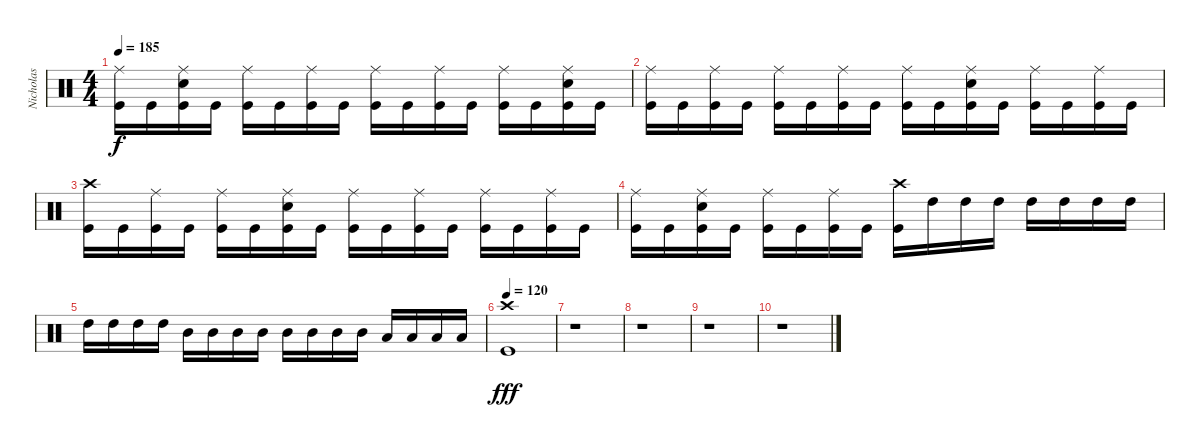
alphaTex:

\track ("Nicholas" "Nicholas") {instrument percussion}
\staff {score}
\articulation defaults
\ts (4 4)
\tempo 185
\clef neutral
\ks c
("Ride (middle)" "Kick (hit)").16{dy f} "Kick (hit)".16 ("Ride (middle)" "Electric Snare (hit)" "Kick (hit)").16 "Kick (hit)".16 ("Ride (middle)" "Kick (hit)").16 "Kick (hit)".16 ("Ride (middle)" "Kick (hit)").16 "Kick (hit)".16 ("Ride (middle)" "Kick (hit)").16 "Kick (hit)".16 ("Ride (middle)" "Kick (hit)").16 "Kick (hit)".16 ("Ride (middle)" "Kick (hit)").16 "Kick (hit)".16 ("Ride (middle)" "Electric Snare (hit)" "Kick (hit)").16 "Kick (hit)".16 |
("Ride (middle)" "Kick (hit)").16 "Kick (hit)".16 ("Ride (middle)" "Kick (hit)").16 "Kick (hit)".16 ("Ride (middle)" "Kick (hit)").16 "Kick (hit)".16 ("Ride (middle)" "Kick (hit)").16 "Kick (hit)".16 ("Ride (middle)" "Kick (hit)").16 "Kick (hit)".16 ("Ride (middle)" "Electric Snare (hit)" "Kick (hit)").16 "Kick (hit)".16 ("Ride (middle)" "Kick (hit)").16 "Kick (hit)".16 ("Ride (middle)" "Kick (hit)").16 "Kick (hit)".16 |
("Crash high (hit)" "Kick (hit)").16 "Kick (hit)".16 ("Ride (middle)" "Kick (hit)").16 "Kick (hit)".16 ("Ride (middle)" "Kick (hit)").16 "Kick (hit)".16 ("Ride (middle)" "Electric Snare (hit)" "Kick (hit)").16 "Kick (hit)".16 ("Ride (middle)" "Kick (hit)").16 "Kick (hit)".16 ("Ride (middle)" "Kick (hit)").16 "Kick (hit)".16 ("Ride (middle)" "Kick (hit)").16 "Kick (hit)".16 ("Ride (middle)" "Kick (hit)").16 "Kick (hit)".16 |
("Ride (middle)" "Kick (hit)").16 "Kick (hit)".16 ("Ride (middle)" "Electric Snare (hit)" "Kick (hit)").16 "Kick (hit)".16 ("Ride (middle)" "Kick (hit)").16 "Kick (hit)".16 ("Ride (middle)" "Kick (hit)").16 "Kick (hit)".16 ("Crash high (hit)" "Kick (hit)").16 "High Tom (hit)".16 "High Tom (hit)".16 "High Tom (hit)".16 "High Tom (hit)".16 "High Tom (hit)".16 "High Tom (hit)".16 "High Tom (hit)".16 |
"High Tom (hit)".16 "High Tom (hit)".16 "High Tom (hit)".16 "High Tom (hit)".16 "Mid Tom (hit)".16 "Mid Tom (hit)".16 "Mid Tom (hit)".16 "Mid Tom (hit)".16 "Mid Tom (hit)".16 "Mid Tom (hit)".16 "Mid Tom (hit)".16 "Mid Tom (hit)".16 "Low Tom (hit)".16 "Low Tom (hit)".16 "Low Tom (hit)".16 "Low Tom (hit)".16 |
\tempo 120
("Crash high (hit)" "Kick (hit)").1{dy fff} |
r.1 |
r.1 |
r.1 |
r.1
